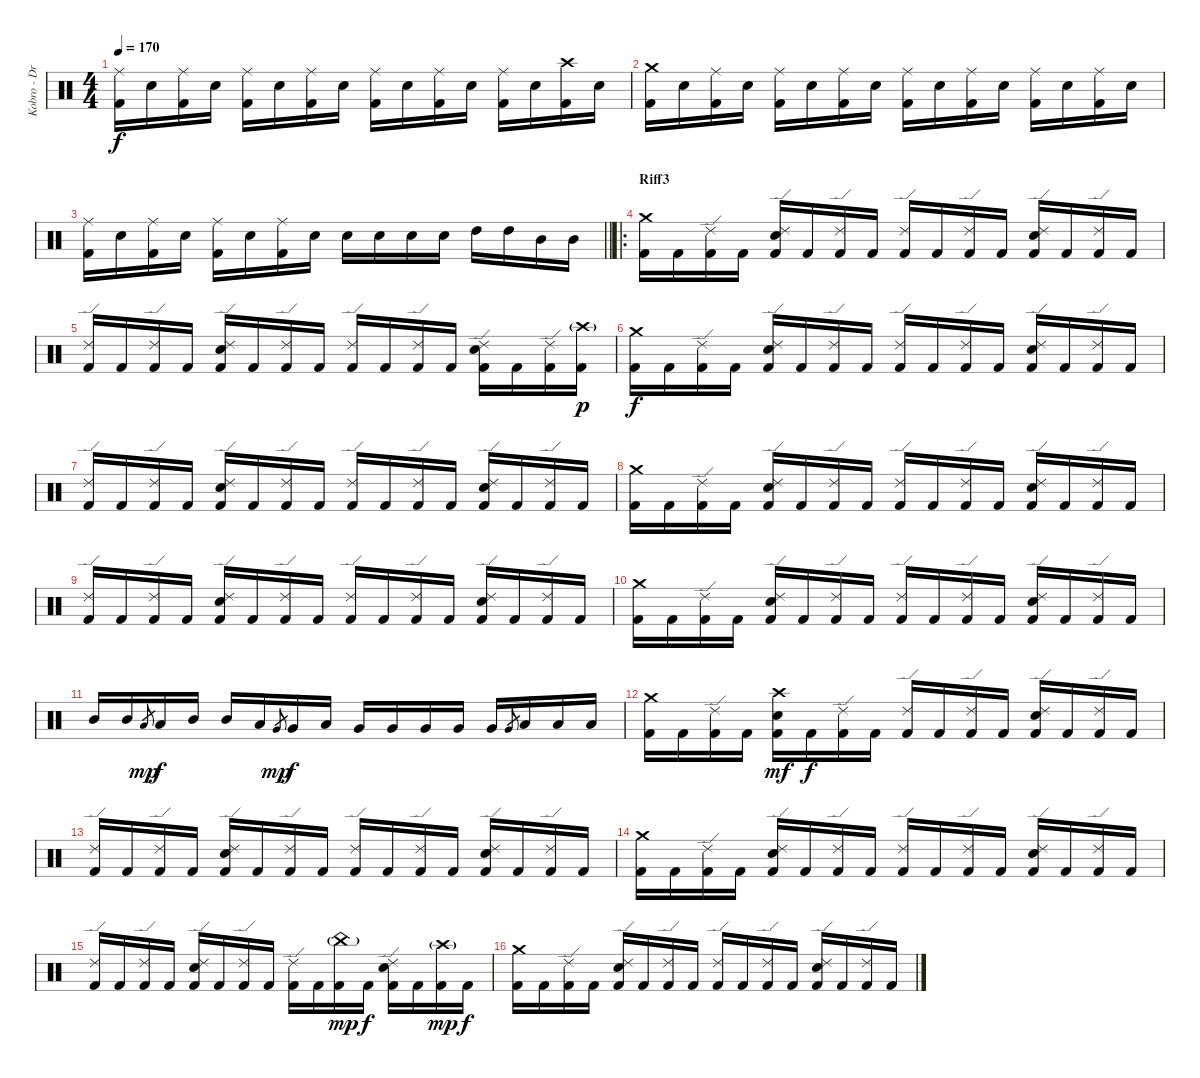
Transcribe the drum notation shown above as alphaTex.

\track ("Kobro - Drums + Percussion" "Kobro - Dr") {instrument percussion}
\staff {score}
\articulation defaults
\ts (4 4)
\tempo 170
\clef neutral
\ks c
("Ride (middle)" "Kick (hit) 2").16{dy f} "Electric Snare (hit)".16 ("Ride (middle)" "Kick (hit) 2").16 "Electric Snare (hit)".16 ("Ride (middle)" "Kick (hit) 2").16 "Electric Snare (hit)".16 ("Ride (middle)" "Kick (hit) 2").16 "Electric Snare (hit)".16 ("Ride (middle)" "Kick (hit) 2").16 "Electric Snare (hit)".16 ("Ride (middle)" "Kick (hit) 2").16 "Electric Snare (hit)".16 ("Ride (middle)" "Kick (hit) 2").16 "Electric Snare (hit)".16 ("Crash high (hit)" "Kick (hit) 2").16 "Electric Snare (hit)".16 |
("Crash medium (hit)" "Kick (hit) 2").16 "Electric Snare (hit)".16 ("Ride (middle)" "Kick (hit) 2").16 "Electric Snare (hit)".16 ("Ride (middle)" "Kick (hit) 2").16 "Electric Snare (hit)".16 ("Ride (middle)" "Kick (hit) 2").16 "Electric Snare (hit)".16 ("Ride (middle)" "Kick (hit) 2").16 "Electric Snare (hit)".16 ("Ride (middle)" "Kick (hit) 2").16 "Electric Snare (hit)".16 ("Ride (middle)" "Kick (hit) 2").16 "Electric Snare (hit)".16 ("Ride (middle)" "Kick (hit) 2").16 "Electric Snare (hit)".16 |
\barLineRight lightlight
("Ride (middle)" "Kick (hit) 2").16 "Electric Snare (hit)".16 ("Ride (middle)" "Kick (hit) 2").16 "Electric Snare (hit)".16 ("Ride (middle)" "Kick (hit) 2").16 "Electric Snare (hit)".16 ("Ride (middle)" "Kick (hit) 2").16 "Electric Snare (hit)".16 "Electric Snare (hit)".16 "Electric Snare (hit)".16 "Electric Snare (hit)".16 "Electric Snare (hit)".16 "High Tom (hit)".16 "High Tom (hit)".16 "Mid Tom (hit)".16 "Mid Tom (hit)".16 |
\ro
\section ("" "Riff3")
("Crash medium (hit)" "Kick (hit) 2").16 "Kick (hit) 2".16 ("Ride (edge) 2" "Kick (hit) 2").16 "Kick (hit) 2".16 ("Ride (edge) 2" "Electric Snare (hit)" "Kick (hit) 2").16 "Kick (hit) 2".16 ("Ride (edge) 2" "Kick (hit) 2").16 "Kick (hit) 2".16 ("Ride (edge) 2" "Kick (hit) 2").16 "Kick (hit) 2".16 ("Ride (edge) 2" "Kick (hit) 2").16 "Kick (hit) 2".16 ("Ride (edge) 2" "Electric Snare (hit)" "Kick (hit) 2").16 "Kick (hit) 2".16 ("Ride (edge) 2" "Kick (hit) 2").16 "Kick (hit) 2".16 |
("Ride (edge) 2" "Kick (hit) 2").16 "Kick (hit) 2".16 ("Ride (edge) 2" "Kick (hit) 2").16 "Kick (hit) 2".16 ("Ride (edge) 2" "Electric Snare (hit)" "Kick (hit) 2").16 "Kick (hit) 2".16 ("Ride (edge) 2" "Kick (hit) 2").16 "Kick (hit) 2".16 ("Ride (edge) 2" "Kick (hit) 2").16 "Kick (hit) 2".16 ("Ride (edge) 2" "Kick (hit) 2").16 "Kick (hit) 2".16 ("Ride (edge) 2" "Electric Snare (hit)" "Kick (hit) 2").16 "Kick (hit) 2".16 ("Ride (edge) 2" "Kick (hit) 2").16 ("Crash high (hit)"{g} "Kick (hit) 2").16{dy p} |
("Crash medium (hit)" "Kick (hit) 2").16{dy f} "Kick (hit) 2".16 ("Ride (edge) 2" "Kick (hit) 2").16 "Kick (hit) 2".16 ("Ride (edge) 2" "Electric Snare (hit)" "Kick (hit) 2").16 "Kick (hit) 2".16 ("Ride (edge) 2" "Kick (hit) 2").16 "Kick (hit) 2".16 ("Ride (edge) 2" "Kick (hit) 2").16 "Kick (hit) 2".16 ("Ride (edge) 2" "Kick (hit) 2").16 "Kick (hit) 2".16 ("Ride (edge) 2" "Electric Snare (hit)" "Kick (hit) 2").16 "Kick (hit) 2".16 ("Ride (edge) 2" "Kick (hit) 2").16 "Kick (hit) 2".16 |
("Ride (edge) 2" "Kick (hit) 2").16 "Kick (hit) 2".16 ("Ride (edge) 2" "Kick (hit) 2").16 "Kick (hit) 2".16 ("Ride (edge) 2" "Electric Snare (hit)" "Kick (hit) 2").16 "Kick (hit) 2".16 ("Ride (edge) 2" "Kick (hit) 2").16 "Kick (hit) 2".16 ("Ride (edge) 2" "Kick (hit) 2").16 "Kick (hit) 2".16 ("Ride (edge) 2" "Kick (hit) 2").16 "Kick (hit) 2".16 ("Ride (edge) 2" "Electric Snare (hit)" "Kick (hit) 2").16 "Kick (hit) 2".16 ("Ride (edge) 2" "Kick (hit) 2").16 "Kick (hit) 2".16 |
("Crash medium (hit)" "Kick (hit) 2").16 "Kick (hit) 2".16 ("Ride (edge) 2" "Kick (hit) 2").16 "Kick (hit) 2".16 ("Ride (edge) 2" "Electric Snare (hit)" "Kick (hit) 2").16 "Kick (hit) 2".16 ("Ride (edge) 2" "Kick (hit) 2").16 "Kick (hit) 2".16 ("Ride (edge) 2" "Kick (hit) 2").16 "Kick (hit) 2".16 ("Ride (edge) 2" "Kick (hit) 2").16 "Kick (hit) 2".16 ("Ride (edge) 2" "Electric Snare (hit)" "Kick (hit) 2").16 "Kick (hit) 2".16 ("Ride (edge) 2" "Kick (hit) 2").16 "Kick (hit) 2".16 |
("Ride (edge) 2" "Kick (hit) 2").16 "Kick (hit) 2".16 ("Ride (edge) 2" "Kick (hit) 2").16 "Kick (hit) 2".16 ("Ride (edge) 2" "Electric Snare (hit)" "Kick (hit) 2").16 "Kick (hit) 2".16 ("Ride (edge) 2" "Kick (hit) 2").16 "Kick (hit) 2".16 ("Ride (edge) 2" "Kick (hit) 2").16 "Kick (hit) 2".16 ("Ride (edge) 2" "Kick (hit) 2").16 "Kick (hit) 2".16 ("Ride (edge) 2" "Electric Snare (hit)" "Kick (hit) 2").16 "Kick (hit) 2".16 ("Ride (edge) 2" "Kick (hit) 2").16 "Kick (hit) 2".16 |
("Crash medium (hit)" "Kick (hit) 2").16 "Kick (hit) 2".16 ("Ride (edge) 2" "Kick (hit) 2").16 "Kick (hit) 2".16 ("Ride (edge) 2" "Electric Snare (hit)" "Kick (hit) 2").16 "Kick (hit) 2".16 ("Ride (edge) 2" "Kick (hit) 2").16 "Kick (hit) 2".16 ("Ride (edge) 2" "Kick (hit) 2").16 "Kick (hit) 2".16 ("Ride (edge) 2" "Kick (hit) 2").16 "Kick (hit) 2".16 ("Ride (edge) 2" "Electric Snare (hit)" "Kick (hit) 2").16 "Kick (hit) 2".16 ("Ride (edge) 2" "Kick (hit) 2").16 "Kick (hit) 2".16 |
"Mid Tom (hit)".16 "Mid Tom (hit)".16 "Low Tom (hit)".8{gr dy mp} "Low Tom (hit)".16{dy f} "Mid Tom (hit)".16 "Mid Tom (hit)".16 "Low Tom (hit)".16 "Very Low Tom (hit)".8{gr dy mp} "Very Low Tom (hit)".16{dy f} "Low Tom (hit)".16 "Very Low Tom (hit)".16 "Very Low Tom (hit)".16 "Very Low Tom (hit)".16 "Very Low Tom (hit)".16 "Very Low Tom (hit)".16 "Very Low Tom (hit)".8{gr} "Low Floor Tom (hit)".16 "Low Floor Tom (hit)".16 "Low Floor Tom (hit)".16 |
("Crash medium (hit)" "Kick (hit) 2").16 "Kick (hit) 2".16 ("Ride (edge) 2" "Kick (hit) 2").16 "Kick (hit) 2".16 ("Crash high (hit)" "Electric Snare (hit)" "Kick (hit) 2").16{dy mf} "Kick (hit) 2".16{dy f} ("Ride (edge) 2" "Kick (hit) 2").16 "Kick (hit) 2".16 ("Ride (edge) 2" "Kick (hit) 2").16 "Kick (hit) 2".16 ("Ride (edge) 2" "Kick (hit) 2").16 "Kick (hit) 2".16 ("Ride (edge) 2" "Electric Snare (hit)" "Kick (hit) 2").16 "Kick (hit) 2".16 ("Ride (edge) 2" "Kick (hit) 2").16 "Kick (hit) 2".16 |
("Ride (edge) 2" "Kick (hit) 2").16 "Kick (hit) 2".16 ("Ride (edge) 2" "Kick (hit) 2").16 "Kick (hit) 2".16 ("Ride (edge) 2" "Electric Snare (hit)" "Kick (hit) 2").16 "Kick (hit) 2".16 ("Ride (edge) 2" "Kick (hit) 2").16 "Kick (hit) 2".16 ("Ride (edge) 2" "Kick (hit) 2").16 "Kick (hit) 2".16 ("Ride (edge) 2" "Kick (hit) 2").16 "Kick (hit) 2".16 ("Ride (edge) 2" "Electric Snare (hit)" "Kick (hit) 2").16 "Kick (hit) 2".16 ("Ride (edge) 2" "Kick (hit) 2").16 "Kick (hit) 2".16 |
("Crash medium (hit)" "Kick (hit) 2").16 "Kick (hit) 2".16 ("Ride (edge) 2" "Kick (hit) 2").16 "Kick (hit) 2".16 ("Ride (edge) 2" "Electric Snare (hit)" "Kick (hit) 2").16 "Kick (hit) 2".16 ("Ride (edge) 2" "Kick (hit) 2").16 "Kick (hit) 2".16 ("Ride (edge) 2" "Kick (hit) 2").16 "Kick (hit) 2".16 ("Ride (edge) 2" "Kick (hit) 2").16 "Kick (hit) 2".16 ("Ride (edge) 2" "Electric Snare (hit)" "Kick (hit) 2").16 "Kick (hit) 2".16 ("Ride (edge) 2" "Kick (hit) 2").16 "Kick (hit) 2".16 |
("Ride (edge) 2" "Kick (hit) 2").16 "Kick (hit) 2".16 ("Ride (edge) 2" "Kick (hit) 2").16 "Kick (hit) 2".16 ("Ride (edge) 2" "Electric Snare (hit)" "Kick (hit) 2").16 "Kick (hit) 2".16 ("Ride (edge) 2" "Kick (hit) 2").16 "Kick (hit) 2".16 ("Ride (edge) 2" "Kick (hit) 2").16 "Kick (hit) 2".16 ("China (hit)"{g} "Kick (hit) 2").16{dy mp} "Kick (hit) 2".16{dy f} ("Ride (edge) 2" "Electric Snare (hit)" "Kick (hit) 2").16 "Kick (hit) 2".16 ("Crash high (hit)"{g} "Kick (hit) 2").16{dy mp} "Kick (hit) 2".16{dy f} |
("Crash medium (hit)" "Kick (hit) 2").16 "Kick (hit) 2".16 ("Ride (edge) 2" "Kick (hit) 2").16 "Kick (hit) 2".16 ("Ride (edge) 2" "Electric Snare (hit)" "Kick (hit) 2").16 "Kick (hit) 2".16 ("Ride (edge) 2" "Kick (hit) 2").16 "Kick (hit) 2".16 ("Ride (edge) 2" "Kick (hit) 2").16 "Kick (hit) 2".16 ("Ride (edge) 2" "Kick (hit) 2").16 "Kick (hit) 2".16 ("Ride (edge) 2" "Electric Snare (hit)" "Kick (hit) 2").16 "Kick (hit) 2".16 ("Ride (edge) 2" "Kick (hit) 2").16 "Kick (hit) 2".16
